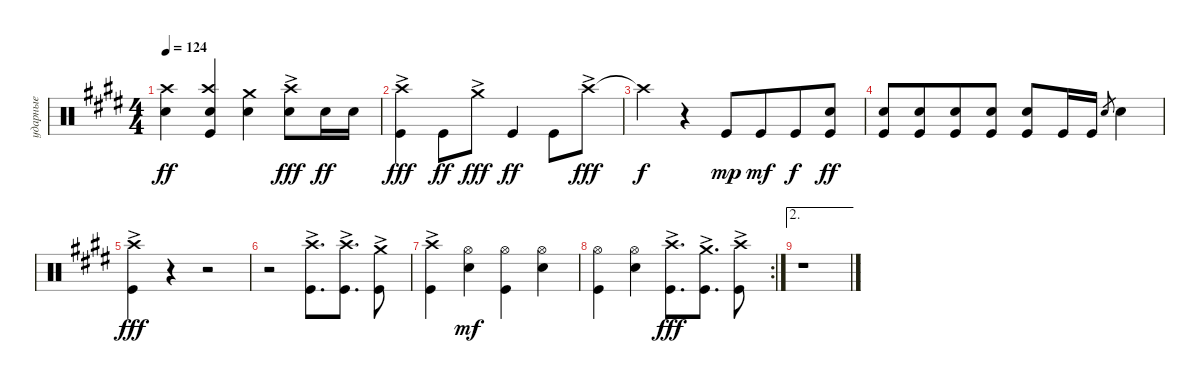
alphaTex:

\track ("ударные" "ударные") {instrument percussion}
\staff {score}
\articulation defaults
\ts (4 4)
\tempo 124
\clef neutral
\ks e
("Snare (hit) 2" "Crash high (hit)").4{dy ff} ("Kick (hit)" "Snare (hit) 2" "Crash high (hit)").4 ("Snare (hit) 2" "Crash medium (hit)").4 ("Snare (hit) 2" "Crash high (hit)"{ac}).8{dy fff} "Snare (hit) 2".16{dy ff} "Snare (hit) 2".16 |
("Kick (hit)" "Crash high (hit)"{ac}).4{dy fff} "Kick (hit)".8{dy ff} "Crash medium (hit)"{ac}.8{dy fff} "Kick (hit)".4{dy ff} "Kick (hit)".8 "Crash high (hit)"{ac}.8{dy fff} |
"Crash high (hit)"{t}.4{dy f} r.4 "Kick (hit)".8{dy mp} "Kick (hit)".8{dy mf beam merge} "Kick (hit)".8{dy f} ("Kick (hit)" "Snare (hit) 2").8{dy ff} |
("Kick (hit)" "Snare (hit) 2").8 ("Kick (hit)" "Snare (hit) 2").8{beam merge} ("Kick (hit)" "Snare (hit) 2").8 ("Kick (hit)" "Snare (hit) 2").8 ("Kick (hit)" "Snare (hit) 2").8 "Kick (hit)".16 "Kick (hit)".16 "Snare (hit) 2".8{gr} "Snare (hit) 2".4 |
("Kick (hit)" "Crash high (hit)"{ac}).4{dy fff} r.4 r.2 |
r.2 ("Kick (hit)" "Crash high (hit)"{ac}).8{d} ("Kick (hit)" "Crash high (hit)"{ac}).8{d} ("Kick (hit)" "Crash medium (hit)"{ac}).8 |
("Kick (hit)" "Crash high (hit)"{ac}).4 ("Snare (hit) 2" "Hi-Hat (open)").4{dy mf} ("Kick (hit)" "Hi-Hat (open)").4 ("Snare (hit) 2" "Hi-Hat (open)").4 |
\rc 2
("Kick (hit)" "Hi-Hat (open)").4 ("Snare (hit) 2" "Hi-Hat (open)").4 ("Kick (hit)" "Crash high (hit)"{ac}).8{d dy fff} ("Kick (hit)" "Crash medium (hit)"{ac}).8{d} ("Kick (hit)" "Crash high (hit)"{ac}).8 |
\ae 2
r.1
